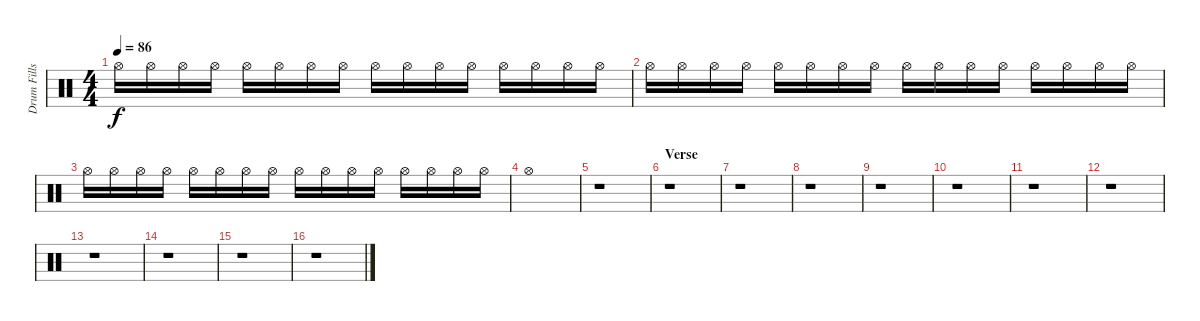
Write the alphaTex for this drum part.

\track ("Drum Fills" "Drum Fills") {instrument percussion}
\staff {score}
\articulation defaults
\ts (4 4)
\tempo 86
\clef neutral
\ks c "Hi-Hat (open)".16{dy f} "Hi-Hat (open)".16 "Hi-Hat (open)".16 "Hi-Hat (open)".16 "Hi-Hat (open)".16 "Hi-Hat (open)".16 "Hi-Hat (open)".16 "Hi-Hat (open)".16 "Hi-Hat (open)".16 "Hi-Hat (open)".16 "Hi-Hat (open)".16 "Hi-Hat (open)".16 "Hi-Hat (open)".16 "Hi-Hat (open)".16 "Hi-Hat (open)".16 "Hi-Hat (open)".16
|
"Hi-Hat (open)".16 "Hi-Hat (open)".16 "Hi-Hat (open)".16 "Hi-Hat (open)".16 "Hi-Hat (open)".16 "Hi-Hat (open)".16 "Hi-Hat (open)".16 "Hi-Hat (open)".16 "Hi-Hat (open)".16 "Hi-Hat (open)".16 "Hi-Hat (open)".16 "Hi-Hat (open)".16 "Hi-Hat (open)".16 "Hi-Hat (open)".16 "Hi-Hat (open)".16 "Hi-Hat (open)".16 |
"Hi-Hat (open)".16 "Hi-Hat (open)".16 "Hi-Hat (open)".16 "Hi-Hat (open)".16 "Hi-Hat (open)".16 "Hi-Hat (open)".16 "Hi-Hat (open)".16 "Hi-Hat (open)".16 "Hi-Hat (open)".16 "Hi-Hat (open)".16 "Hi-Hat (open)".16 "Hi-Hat (open)".16 "Hi-Hat (open)".16 "Hi-Hat (open)".16 "Hi-Hat (open)".16 "Hi-Hat (open)".16 |
"Hi-Hat (open)".1 |
r.1 |
\section ("" "Verse")
r.1 |
r.1 |
r.1 |
r.1 |
r.1 |
r.1 |
r.1 |
r.1 |
r.1 |
r.1 |
r.1
